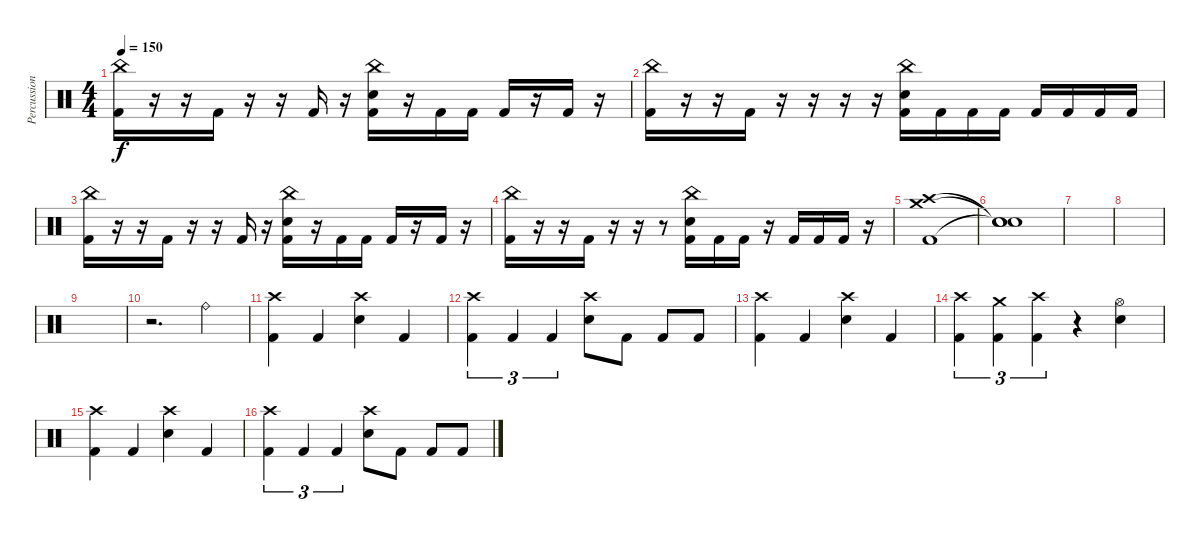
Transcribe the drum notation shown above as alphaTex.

\track ("Percussion" "Percussion") {instrument percussion}
\staff {score}
\articulation defaults
\ts (4 4)
\tempo 150
\clef neutral
\ks c
("China (hit)" "Kick (hit) 2").16{dy f} r.16 r.16 "Kick (hit) 2".16 r.16 r.16 "Kick (hit) 2".16 r.16 ("China (hit)" "Electric Snare (hit)" "Kick (hit) 2").16 r.16 "Kick (hit) 2".16 "Kick (hit) 2".16 "Kick (hit) 2".16 r.16 "Kick (hit) 2".16 r.16 |
("China (hit)" "Kick (hit) 2").16 r.16 r.16 "Kick (hit) 2".16 r.16 r.16 r.16 r.16 ("China (hit)" "Electric Snare (hit)" "Kick (hit) 2").16 "Kick (hit) 2".16 "Kick (hit) 2".16 "Kick (hit) 2".16 "Kick (hit) 2".16 "Kick (hit) 2".16 "Kick (hit) 2".16 "Kick (hit) 2".16 |
("China (hit)" "Kick (hit) 2").16 r.16 r.16 "Kick (hit) 2".16 r.16 r.16 "Kick (hit) 2".16 r.16 ("China (hit)" "Electric Snare (hit)" "Kick (hit) 2").16 r.16 "Kick (hit) 2".16 "Kick (hit) 2".16 "Kick (hit) 2".16 r.16 "Kick (hit) 2".16 r.16 |
("China (hit)" "Kick (hit) 2").16 r.16 r.16 "Kick (hit) 2".16 r.16 r.16 r.8 ("China (hit)" "Electric Snare (hit)" "Kick (hit) 2").16 "Kick (hit) 2".16 "Kick (hit) 2".16 r.16 "Kick (hit) 2".16 "Kick (hit) 2".16 "Kick (hit) 2".16 r.16 |
("Crash medium (hit)" "Crash high (hit)" "Kick (hit) 2").1 |
("Snare (hit)"{t} "Snare (hit)"{t} "Snare (hit)"{t}).1 |
|
|
|
r.2{d} "Ride (bell)".4 |
("Crash high (hit)" "Kick (hit) 2").4 "Kick (hit) 2".4 ("Crash high (hit)" "Electric Snare (hit)").4 "Kick (hit) 2".4 |
("Crash high (hit)" "Kick (hit) 2").4{tu (3 2)} "Kick (hit) 2".4{tu (3 2)} "Kick (hit) 2".4{tu (3 2)} ("Crash high (hit)" "Electric Snare (hit)").8 "Kick (hit) 2".8 "Kick (hit) 2".8 "Kick (hit) 2".8 |
("Crash high (hit)" "Kick (hit) 2").4 "Kick (hit) 2".4 ("Crash high (hit)" "Electric Snare (hit)").4 "Kick (hit) 2".4 |
("Crash high (hit)" "Kick (hit) 2").4{tu (3 2)} ("Crash medium (hit)" "Kick (hit) 2").4{tu (3 2)} ("Crash high (hit)" "Kick (hit) 2").4{tu (3 2)} r.4 ("Hi-Hat (open)" "Electric Snare (hit)").4 |
("Crash high (hit)" "Kick (hit) 2").4 "Kick (hit) 2".4 ("Crash high (hit)" "Electric Snare (hit)").4 "Kick (hit) 2".4 |
("Crash high (hit)" "Kick (hit) 2").4{tu (3 2)} "Kick (hit) 2".4{tu (3 2)} "Kick (hit) 2".4{tu (3 2)} ("Crash high (hit)" "Electric Snare (hit)").8 "Kick (hit) 2".8 "Kick (hit) 2".8 "Kick (hit) 2".8
